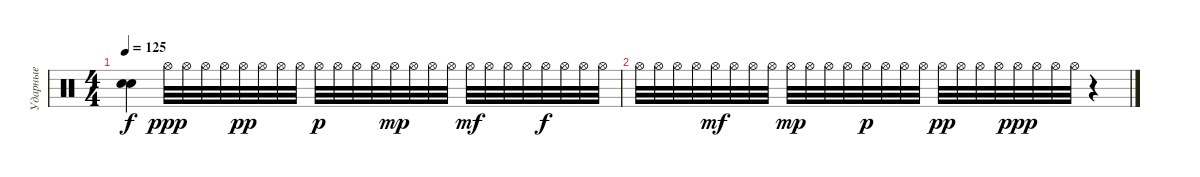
\track ("Ударные" "Ударные") {instrument percussion}
\staff {score}
\articulation defaults
\ts (4 4)
\tempo 125
\clef neutral
\ks c
("Snare (hit)"{t} "Snare (hit)"{t}).4{dy f} "Hi-Hat (open)".32{dy ppp} "Hi-Hat (open)".32 "Hi-Hat (open)".32 "Hi-Hat (open)".32 "Hi-Hat (open)".32{dy pp} "Hi-Hat (open)".32 "Hi-Hat (open)".32 "Hi-Hat (open)".32 "Hi-Hat (open)".32{dy p} "Hi-Hat (open)".32 "Hi-Hat (open)".32 "Hi-Hat (open)".32 "Hi-Hat (open)".32{dy mp} "Hi-Hat (open)".32 "Hi-Hat (open)".32 "Hi-Hat (open)".32 "Hi-Hat (open)".32{dy mf} "Hi-Hat (open)".32 "Hi-Hat (open)".32 "Hi-Hat (open)".32 "Hi-Hat (open)".32{dy f} "Hi-Hat (open)".32 "Hi-Hat (open)".32 "Hi-Hat (open)".32 |
"Hi-Hat (open)".32 "Hi-Hat (open)".32 "Hi-Hat (open)".32 "Hi-Hat (open)".32 "Hi-Hat (open)".32{dy mf} "Hi-Hat (open)".32 "Hi-Hat (open)".32 "Hi-Hat (open)".32 "Hi-Hat (open)".32{dy mp} "Hi-Hat (open)".32 "Hi-Hat (open)".32 "Hi-Hat (open)".32 "Hi-Hat (open)".32{dy p} "Hi-Hat (open)".32 "Hi-Hat (open)".32 "Hi-Hat (open)".32 "Hi-Hat (open)".32{dy pp} "Hi-Hat (open)".32 "Hi-Hat (open)".32 "Hi-Hat (open)".32 "Hi-Hat (open)".32{dy ppp} "Hi-Hat (open)".32 "Hi-Hat (open)".32 "Hi-Hat (open)".32 r.4
